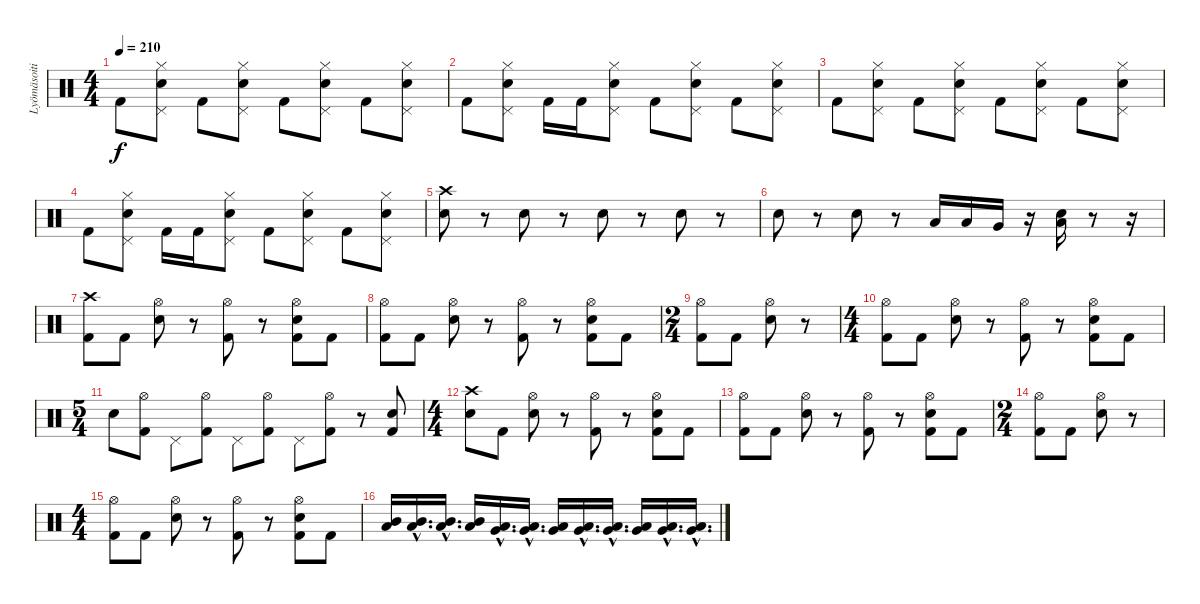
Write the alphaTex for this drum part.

\track ("Lyömäsoitin" "Lyömäsoiti") {instrument percussion}
\staff {score}
\articulation defaults
\ts (4 4)
\tempo 210
\clef neutral
\ks c "Kick (hit) 2".8{dy f}
("Hi-Hat (closed)" "Pedal Hi-Hat (hit)" "Electric Snare (hit)").8 "Kick (hit) 2".8 ("Hi-Hat (closed)" "Pedal Hi-Hat (hit)" "Electric Snare (hit)").8 "Kick (hit) 2".8 ("Hi-Hat (closed)" "Pedal Hi-Hat (hit)" "Electric Snare (hit)").8 "Kick (hit) 2".8 ("Hi-Hat (closed)" "Pedal Hi-Hat (hit)" "Electric Snare (hit)").8 |
"Kick (hit) 2".8 ("Hi-Hat (closed)" "Pedal Hi-Hat (hit)" "Electric Snare (hit)").8 "Kick (hit) 2".16 "Kick (hit) 2".16 ("Hi-Hat (closed)" "Pedal Hi-Hat (hit)" "Electric Snare (hit)").8 "Kick (hit) 2".8 ("Hi-Hat (closed)" "Pedal Hi-Hat (hit)" "Electric Snare (hit)").8 "Kick (hit) 2".8 ("Hi-Hat (closed)" "Pedal Hi-Hat (hit)" "Electric Snare (hit)").8 |
"Kick (hit) 2".8 ("Hi-Hat (closed)" "Pedal Hi-Hat (hit)" "Electric Snare (hit)").8 "Kick (hit) 2".8 ("Hi-Hat (closed)" "Pedal Hi-Hat (hit)" "Electric Snare (hit)").8 "Kick (hit) 2".8 ("Hi-Hat (closed)" "Pedal Hi-Hat (hit)" "Electric Snare (hit)").8 "Kick (hit) 2".8 ("Hi-Hat (closed)" "Pedal Hi-Hat (hit)" "Electric Snare (hit)").8 |
"Kick (hit) 2".8 ("Hi-Hat (closed)" "Pedal Hi-Hat (hit)" "Electric Snare (hit)").8 "Kick (hit) 2".16 "Kick (hit) 2".16 ("Hi-Hat (closed)" "Pedal Hi-Hat (hit)" "Electric Snare (hit)").8 "Kick (hit) 2".8 ("Hi-Hat (closed)" "Pedal Hi-Hat (hit)" "Electric Snare (hit)").8 "Kick (hit) 2".8 ("Hi-Hat (closed)" "Pedal Hi-Hat (hit)" "Electric Snare (hit)").8 |
("Crash high (hit)" "Electric Snare (hit)").8 r.8 "Electric Snare (hit)".8 r.8 "Electric Snare (hit)".8 r.8 "Electric Snare (hit)".8 r.8 |
"Electric Snare (hit)".8 r.8 "Electric Snare (hit)".8 r.8 "Low Tom (hit)".16 "Low Tom (hit)".16 "Very Low Tom (hit)".16 r.16 ("Electric Snare (hit)" "Low Tom (hit)").16 r.8 r.16 |
("Crash high (hit)" "Kick (hit) 2").8 "Kick (hit) 2".8 ("Hi-Hat (open)" "Electric Snare (hit)").8 r.8 ("Hi-Hat (open)" "Kick (hit) 2").8 r.8 ("Hi-Hat (open)" "Electric Snare (hit)" "Kick (hit) 2").8 "Kick (hit) 2".8 |
("Hi-Hat (open)" "Kick (hit) 2").8 "Kick (hit) 2".8 ("Hi-Hat (open)" "Electric Snare (hit)").8 r.8 ("Hi-Hat (open)" "Kick (hit) 2").8 r.8 ("Hi-Hat (open)" "Electric Snare (hit)" "Kick (hit) 2").8 "Kick (hit) 2".8 |
\ts (2 4)
("Hi-Hat (open)" "Kick (hit) 2").8 "Kick (hit) 2".8 ("Hi-Hat (open)" "Electric Snare (hit)").8 r.8 |
\ts (4 4)
("Hi-Hat (open)" "Kick (hit) 2").8 "Kick (hit) 2".8 ("Hi-Hat (open)" "Electric Snare (hit)").8 r.8 ("Hi-Hat (open)" "Kick (hit) 2").8 r.8 ("Hi-Hat (open)" "Electric Snare (hit)" "Kick (hit) 2").8 "Kick (hit) 2".8 |
\ts (5 4)
"Electric Snare (hit)".8 ("Hi-Hat (open)" "Kick (hit) 2").8 "Pedal Hi-Hat (hit)".8 ("Hi-Hat (open)" "Kick (hit) 2").8 "Pedal Hi-Hat (hit)".8 ("Hi-Hat (open)" "Kick (hit) 2").8 "Pedal Hi-Hat (hit)".8 ("Hi-Hat (open)" "Kick (hit) 2").8 r.8 ("Electric Snare (hit)" "Kick (hit) 2").8 |
\ts (4 4)
("Crash high (hit)" "Electric Snare (hit)").8 "Kick (hit) 2".8 ("Hi-Hat (open)" "Electric Snare (hit)").8 r.8 ("Hi-Hat (open)" "Kick (hit) 2").8 r.8 ("Hi-Hat (open)" "Electric Snare (hit)" "Kick (hit) 2").8 "Kick (hit) 2".8 |
("Hi-Hat (open)" "Kick (hit) 2").8 "Kick (hit) 2".8 ("Hi-Hat (open)" "Electric Snare (hit)").8 r.8 ("Hi-Hat (open)" "Kick (hit) 2").8 r.8 ("Hi-Hat (open)" "Electric Snare (hit)" "Kick (hit) 2").8 "Kick (hit) 2".8 |
\ts (2 4)
("Hi-Hat (open)" "Kick (hit) 2").8 "Kick (hit) 2".8 ("Hi-Hat (open)" "Electric Snare (hit)").8 r.8 |
\ts (4 4)
("Hi-Hat (open)" "Kick (hit) 2").8 "Kick (hit) 2".8 ("Hi-Hat (open)" "Snare (hit) 2").8 r.8 ("Hi-Hat (open)" "Kick (hit) 2").8 r.8 ("Hi-Hat (open)" "Electric Snare (hit)" "Kick (hit) 2").8 "Kick (hit) 2".8 |
("Mid Tom (hit)" "Low Tom (hit)").16 ("Mid Tom (hit)"{hac} "Low Tom (hit)"{hac}).16{d} ("Mid Tom (hit)"{hac} "Low Tom (hit)"{hac}).16{d} ("Mid Tom (hit)" "Low Tom (hit)").16 ("Low Tom (hit)"{hac} "Very Low Tom (hit)"{hac}).16{d} ("Low Tom (hit)"{hac} "Very Low Tom (hit)"{hac}).16{d} ("Low Tom (hit)" "Very Low Tom (hit)").16 ("Low Tom (hit)"{hac} "Very Low Tom (hit)"{hac}).16{d} ("Low Tom (hit)"{hac} "Very Low Tom (hit)"{hac}).16{d} ("Low Tom (hit)" "Very Low Tom (hit)").16 ("Very Low Tom (hit)"{hac} "Low Floor Tom (hit)"{hac}).16{d} ("Very Low Tom (hit)"{hac} "Low Floor Tom (hit)"{hac}).16{d}
